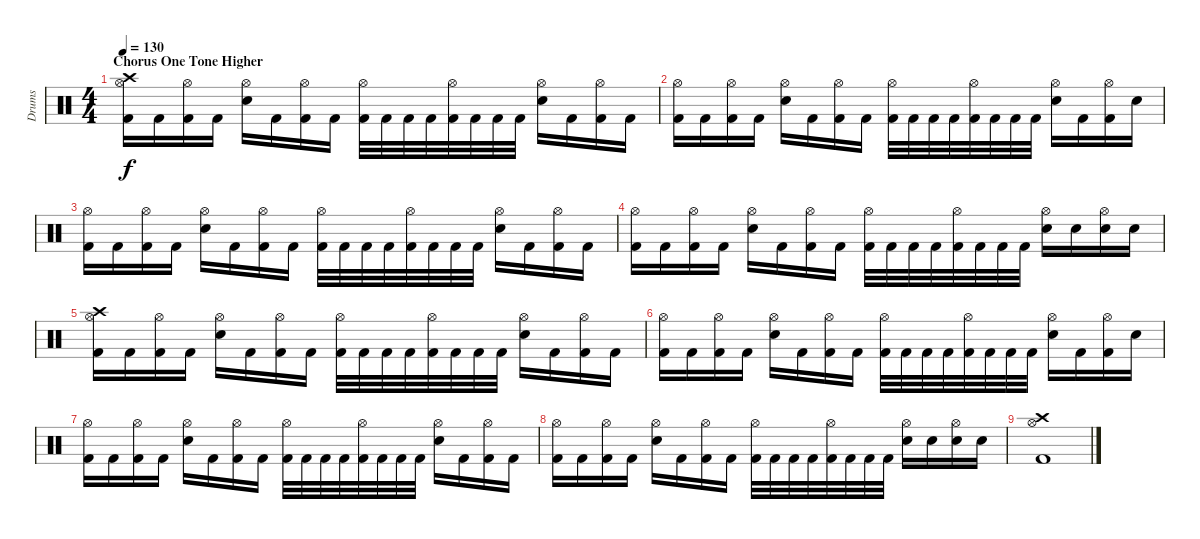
\track ("Drums" "Drums") {instrument percussion}
\staff {score}
\articulation defaults
\ts (4 4)
\section ("" "Chorus One Tone Higher")
\tempo 130
\clef neutral
\ks c
("Crash high (hit)" "Hi-Hat (open)" "Kick (hit) 2").16{dy f} "Kick (hit) 2".16 ("Hi-Hat (open)" "Kick (hit) 2").16 "Kick (hit) 2".16 ("Hi-Hat (open)" "Electric Snare (hit)").16 "Kick (hit) 2".16 ("Hi-Hat (open)" "Kick (hit) 2").16 "Kick (hit) 2".16 ("Hi-Hat (open)" "Kick (hit) 2").32 "Kick (hit) 2".32 "Kick (hit) 2".32 "Kick (hit) 2".32 ("Hi-Hat (open)" "Kick (hit) 2").32 "Kick (hit) 2".32 "Kick (hit) 2".32 "Kick (hit) 2".32 ("Hi-Hat (open)" "Electric Snare (hit)").16 "Kick (hit) 2".16 ("Hi-Hat (open)" "Kick (hit) 2").16 "Kick (hit) 2".16 |
("Hi-Hat (open)" "Kick (hit) 2").16 "Kick (hit) 2".16 ("Hi-Hat (open)" "Kick (hit) 2").16 "Kick (hit) 2".16 ("Hi-Hat (open)" "Electric Snare (hit)").16 "Kick (hit) 2".16 ("Hi-Hat (open)" "Kick (hit) 2").16 "Kick (hit) 2".16 ("Hi-Hat (open)" "Kick (hit) 2").32 "Kick (hit) 2".32 "Kick (hit) 2".32 "Kick (hit) 2".32 ("Hi-Hat (open)" "Kick (hit) 2").32 "Kick (hit) 2".32 "Kick (hit) 2".32 "Kick (hit) 2".32 ("Hi-Hat (open)" "Electric Snare (hit)").16 "Kick (hit) 2".16 ("Hi-Hat (open)" "Kick (hit) 2").16 "Electric Snare (hit)".16 |
("Hi-Hat (open)" "Kick (hit) 2").16 "Kick (hit) 2".16 ("Hi-Hat (open)" "Kick (hit) 2").16 "Kick (hit) 2".16 ("Hi-Hat (open)" "Electric Snare (hit)").16 "Kick (hit) 2".16 ("Hi-Hat (open)" "Kick (hit) 2").16 "Kick (hit) 2".16 ("Hi-Hat (open)" "Kick (hit) 2").32 "Kick (hit) 2".32 "Kick (hit) 2".32 "Kick (hit) 2".32 ("Hi-Hat (open)" "Kick (hit) 2").32 "Kick (hit) 2".32 "Kick (hit) 2".32 "Kick (hit) 2".32 ("Hi-Hat (open)" "Electric Snare (hit)").16 "Kick (hit) 2".16 ("Hi-Hat (open)" "Kick (hit) 2").16 "Kick (hit) 2".16 |
("Hi-Hat (open)" "Kick (hit) 2").16 "Kick (hit) 2".16 ("Hi-Hat (open)" "Kick (hit) 2").16 "Kick (hit) 2".16 ("Hi-Hat (open)" "Electric Snare (hit)").16 "Kick (hit) 2".16 ("Hi-Hat (open)" "Kick (hit) 2").16 "Kick (hit) 2".16 ("Hi-Hat (open)" "Kick (hit) 2").32 "Kick (hit) 2".32 "Kick (hit) 2".32 "Kick (hit) 2".32 ("Hi-Hat (open)" "Kick (hit) 2").32 "Kick (hit) 2".32 "Kick (hit) 2".32 "Kick (hit) 2".32 ("Hi-Hat (open)" "Electric Snare (hit)").16 "Electric Snare (hit)".16 ("Hi-Hat (open)" "Electric Snare (hit)").16 "Electric Snare (hit)".16 |
("Crash high (hit)" "Hi-Hat (open)" "Kick (hit) 2").16 "Kick (hit) 2".16 ("Hi-Hat (open)" "Kick (hit) 2").16 "Kick (hit) 2".16 ("Hi-Hat (open)" "Electric Snare (hit)").16 "Kick (hit) 2".16 ("Hi-Hat (open)" "Kick (hit) 2").16 "Kick (hit) 2".16 ("Hi-Hat (open)" "Kick (hit) 2").32 "Kick (hit) 2".32 "Kick (hit) 2".32 "Kick (hit) 2".32 ("Hi-Hat (open)" "Kick (hit) 2").32 "Kick (hit) 2".32 "Kick (hit) 2".32 "Kick (hit) 2".32 ("Hi-Hat (open)" "Electric Snare (hit)").16 "Kick (hit) 2".16 ("Hi-Hat (open)" "Kick (hit) 2").16 "Kick (hit) 2".16 |
("Hi-Hat (open)" "Kick (hit) 2").16 "Kick (hit) 2".16 ("Hi-Hat (open)" "Kick (hit) 2").16 "Kick (hit) 2".16 ("Hi-Hat (open)" "Electric Snare (hit)").16 "Kick (hit) 2".16 ("Hi-Hat (open)" "Kick (hit) 2").16 "Kick (hit) 2".16 ("Hi-Hat (open)" "Kick (hit) 2").32 "Kick (hit) 2".32 "Kick (hit) 2".32 "Kick (hit) 2".32 ("Hi-Hat (open)" "Kick (hit) 2").32 "Kick (hit) 2".32 "Kick (hit) 2".32 "Kick (hit) 2".32 ("Hi-Hat (open)" "Electric Snare (hit)").16 "Kick (hit) 2".16 ("Hi-Hat (open)" "Kick (hit) 2").16 "Electric Snare (hit)".16 |
("Hi-Hat (open)" "Kick (hit) 2").16 "Kick (hit) 2".16 ("Hi-Hat (open)" "Kick (hit) 2").16 "Kick (hit) 2".16 ("Hi-Hat (open)" "Electric Snare (hit)").16 "Kick (hit) 2".16 ("Hi-Hat (open)" "Kick (hit) 2").16 "Kick (hit) 2".16 ("Hi-Hat (open)" "Kick (hit) 2").32 "Kick (hit) 2".32 "Kick (hit) 2".32 "Kick (hit) 2".32 ("Hi-Hat (open)" "Kick (hit) 2").32 "Kick (hit) 2".32 "Kick (hit) 2".32 "Kick (hit) 2".32 ("Hi-Hat (open)" "Electric Snare (hit)").16 "Kick (hit) 2".16 ("Hi-Hat (open)" "Kick (hit) 2").16 "Kick (hit) 2".16 |
("Hi-Hat (open)" "Kick (hit) 2").16 "Kick (hit) 2".16 ("Hi-Hat (open)" "Kick (hit) 2").16 "Kick (hit) 2".16 ("Hi-Hat (open)" "Electric Snare (hit)").16 "Kick (hit) 2".16 ("Hi-Hat (open)" "Kick (hit) 2").16 "Kick (hit) 2".16 ("Hi-Hat (open)" "Kick (hit) 2").32 "Kick (hit) 2".32 "Kick (hit) 2".32 "Kick (hit) 2".32 ("Hi-Hat (open)" "Kick (hit) 2").32 "Kick (hit) 2".32 "Kick (hit) 2".32 "Kick (hit) 2".32 ("Hi-Hat (open)" "Electric Snare (hit)").16 "Electric Snare (hit)".16 ("Hi-Hat (open)" "Electric Snare (hit)").16 "Electric Snare (hit)".16 |
("Hi-Hat (open)" "Crash high (hit)" "Kick (hit) 2").1
